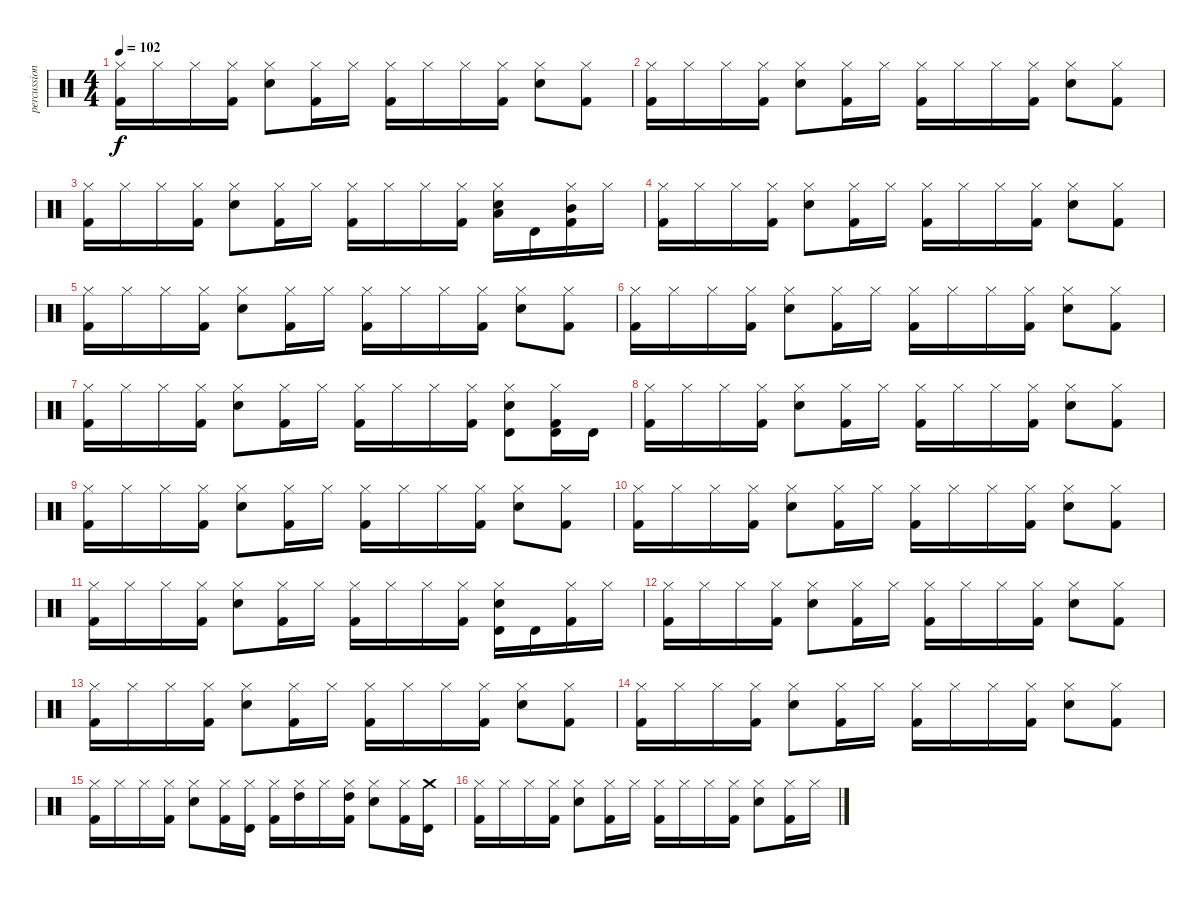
\track ("percussion" "percussion") {instrument percussion}
\staff {score}
\articulation defaults
\ts (4 4)
\tempo 102
\clef neutral
\ks aminor
("Hi-Hat (closed)" "Kick (hit) 2").16{dy f} "Hi-Hat (closed)".16 "Hi-Hat (closed)".16 ("Hi-Hat (closed)" "Kick (hit) 2").16 ("Snare (hit) 2" "Hi-Hat (closed)").8 ("Hi-Hat (closed)" "Kick (hit) 2").16 "Hi-Hat (closed)".16 ("Hi-Hat (closed)" "Kick (hit) 2").16 "Hi-Hat (closed)".16 "Hi-Hat (closed)".16 ("Hi-Hat (closed)" "Kick (hit) 2").16 ("Snare (hit) 2" "Hi-Hat (closed)").8 ("Hi-Hat (closed)" "Kick (hit) 2").8 |
("Hi-Hat (closed)" "Kick (hit) 2").16 "Hi-Hat (closed)".16 "Hi-Hat (closed)".16 ("Hi-Hat (closed)" "Kick (hit) 2").16 ("Snare (hit) 2" "Hi-Hat (closed)").8 ("Hi-Hat (closed)" "Kick (hit) 2").16 "Hi-Hat (closed)".16 ("Hi-Hat (closed)" "Kick (hit) 2").16 "Hi-Hat (closed)".16 "Hi-Hat (closed)".16 ("Hi-Hat (closed)" "Kick (hit) 2").16 ("Snare (hit) 2" "Hi-Hat (closed)").8 ("Hi-Hat (closed)" "Kick (hit) 2").8 |
("Hi-Hat (closed)" "Kick (hit) 2").16 "Hi-Hat (closed)".16 "Hi-Hat (closed)".16 ("Hi-Hat (closed)" "Kick (hit) 2").16 ("Snare (hit) 2" "Hi-Hat (closed)").8 ("Hi-Hat (closed)" "Kick (hit) 2").16 "Hi-Hat (closed)".16 ("Hi-Hat (closed)" "Kick (hit) 2").16 "Hi-Hat (closed)".16 "Hi-Hat (closed)".16 ("Hi-Hat (closed)" "Kick (hit) 2").16 ("Low Tom (hit)" "Snare (hit) 2" "Hi-Hat (closed)").16 "Timbale high (hit)".16 ("Mid Tom (hit)" "Hi-Hat (closed)" "Kick (hit) 2").16 "Hi-Hat (closed)".16 |
("Hi-Hat (closed)" "Kick (hit) 2").16 "Hi-Hat (closed)".16 "Hi-Hat (closed)".16 ("Hi-Hat (closed)" "Kick (hit) 2").16 ("Snare (hit) 2" "Hi-Hat (closed)").8 ("Hi-Hat (closed)" "Kick (hit) 2").16 "Hi-Hat (closed)".16 ("Hi-Hat (closed)" "Kick (hit) 2").16 "Hi-Hat (closed)".16 "Hi-Hat (closed)".16 ("Hi-Hat (closed)" "Kick (hit) 2").16 ("Snare (hit) 2" "Hi-Hat (closed)").8 ("Hi-Hat (closed)" "Kick (hit) 2").8 |
("Hi-Hat (closed)" "Kick (hit) 2").16 "Hi-Hat (closed)".16 "Hi-Hat (closed)".16 ("Hi-Hat (closed)" "Kick (hit) 2").16 ("Snare (hit) 2" "Hi-Hat (closed)").8 ("Hi-Hat (closed)" "Kick (hit) 2").16 "Hi-Hat (closed)".16 ("Hi-Hat (closed)" "Kick (hit) 2").16 "Hi-Hat (closed)".16 "Hi-Hat (closed)".16 ("Hi-Hat (closed)" "Kick (hit) 2").16 ("Snare (hit) 2" "Hi-Hat (closed)").8 ("Hi-Hat (closed)" "Kick (hit) 2").8 |
("Hi-Hat (closed)" "Kick (hit) 2").16 "Hi-Hat (closed)".16 "Hi-Hat (closed)".16 ("Hi-Hat (closed)" "Kick (hit) 2").16 ("Snare (hit) 2" "Hi-Hat (closed)").8 ("Hi-Hat (closed)" "Kick (hit) 2").16 "Hi-Hat (closed)".16 ("Hi-Hat (closed)" "Kick (hit) 2").16 "Hi-Hat (closed)".16 "Hi-Hat (closed)".16 ("Hi-Hat (closed)" "Kick (hit) 2").16 ("Snare (hit) 2" "Hi-Hat (closed)").8 ("Hi-Hat (closed)" "Kick (hit) 2").8 |
("Hi-Hat (closed)" "Kick (hit) 2").16 "Hi-Hat (closed)".16 "Hi-Hat (closed)".16 ("Hi-Hat (closed)" "Kick (hit) 2").16 ("Snare (hit) 2" "Hi-Hat (closed)").8 ("Hi-Hat (closed)" "Kick (hit) 2").16 "Hi-Hat (closed)".16 ("Hi-Hat (closed)" "Kick (hit) 2").16 "Hi-Hat (closed)".16 "Hi-Hat (closed)".16 ("Hi-Hat (closed)" "Kick (hit) 2").16 ("Timbale high (hit)" "Snare (hit) 2" "Hi-Hat (closed)").8 ("Timbale high (hit)" "Hi-Hat (closed)" "Kick (hit) 2").16 "Timbale high (hit)".16 |
("Hi-Hat (closed)" "Kick (hit) 2").16 "Hi-Hat (closed)".16 "Hi-Hat (closed)".16 ("Hi-Hat (closed)" "Kick (hit) 2").16 ("Snare (hit) 2" "Hi-Hat (closed)").8 ("Hi-Hat (closed)" "Kick (hit) 2").16 "Hi-Hat (closed)".16 ("Hi-Hat (closed)" "Kick (hit) 2").16 "Hi-Hat (closed)".16 "Hi-Hat (closed)".16 ("Hi-Hat (closed)" "Kick (hit) 2").16 ("Snare (hit) 2" "Hi-Hat (closed)").8 ("Hi-Hat (closed)" "Kick (hit) 2").8 |
("Hi-Hat (closed)" "Kick (hit) 2").16 "Hi-Hat (closed)".16 "Hi-Hat (closed)".16 ("Hi-Hat (closed)" "Kick (hit) 2").16 ("Snare (hit) 2" "Hi-Hat (closed)").8 ("Hi-Hat (closed)" "Kick (hit) 2").16 "Hi-Hat (closed)".16 ("Hi-Hat (closed)" "Kick (hit) 2").16 "Hi-Hat (closed)".16 "Hi-Hat (closed)".16 ("Hi-Hat (closed)" "Kick (hit) 2").16 ("Snare (hit) 2" "Hi-Hat (closed)").8 ("Hi-Hat (closed)" "Kick (hit) 2").8 |
("Hi-Hat (closed)" "Kick (hit) 2").16 "Hi-Hat (closed)".16 "Hi-Hat (closed)".16 ("Hi-Hat (closed)" "Kick (hit) 2").16 ("Snare (hit) 2" "Hi-Hat (closed)").8 ("Hi-Hat (closed)" "Kick (hit) 2").16 "Hi-Hat (closed)".16 ("Hi-Hat (closed)" "Kick (hit) 2").16 "Hi-Hat (closed)".16 "Hi-Hat (closed)".16 ("Hi-Hat (closed)" "Kick (hit) 2").16 ("Snare (hit) 2" "Hi-Hat (closed)").8 ("Hi-Hat (closed)" "Kick (hit) 2").8 |
("Hi-Hat (closed)" "Kick (hit) 2").16 "Hi-Hat (closed)".16 "Hi-Hat (closed)".16 ("Hi-Hat (closed)" "Kick (hit) 2").16 ("Snare (hit) 2" "Hi-Hat (closed)").8 ("Hi-Hat (closed)" "Kick (hit) 2").16 "Hi-Hat (closed)".16 ("Hi-Hat (closed)" "Kick (hit) 2").16 "Hi-Hat (closed)".16 "Hi-Hat (closed)".16 ("Hi-Hat (closed)" "Kick (hit) 2").16 ("Timbale high (hit)" "Snare (hit) 2" "Hi-Hat (closed)").16 "Timbale high (hit)".16 ("Hi-Hat (closed)" "Kick (hit) 2").16 "Hi-Hat (closed)".16 |
("Hi-Hat (closed)" "Kick (hit) 2").16 "Hi-Hat (closed)".16 "Hi-Hat (closed)".16 ("Hi-Hat (closed)" "Kick (hit) 2").16 ("Snare (hit) 2" "Hi-Hat (closed)").8 ("Hi-Hat (closed)" "Kick (hit) 2").16 "Hi-Hat (closed)".16 ("Hi-Hat (closed)" "Kick (hit) 2").16 "Hi-Hat (closed)".16 "Hi-Hat (closed)".16 ("Hi-Hat (closed)" "Kick (hit) 2").16 ("Snare (hit) 2" "Hi-Hat (closed)").8 ("Hi-Hat (closed)" "Kick (hit) 2").8 |
("Hi-Hat (closed)" "Kick (hit) 2").16 "Hi-Hat (closed)".16 "Hi-Hat (closed)".16 ("Hi-Hat (closed)" "Kick (hit) 2").16 ("Snare (hit) 2" "Hi-Hat (closed)").8 ("Hi-Hat (closed)" "Kick (hit) 2").16 "Hi-Hat (closed)".16 ("Hi-Hat (closed)" "Kick (hit) 2").16 "Hi-Hat (closed)".16 "Hi-Hat (closed)".16 ("Hi-Hat (closed)" "Kick (hit) 2").16 ("Snare (hit) 2" "Hi-Hat (closed)").8 ("Hi-Hat (closed)" "Kick (hit) 2").8 |
("Hi-Hat (closed)" "Kick (hit) 2").16 "Hi-Hat (closed)".16 "Hi-Hat (closed)".16 ("Hi-Hat (closed)" "Kick (hit) 2").16 ("Snare (hit) 2" "Hi-Hat (closed)").8 ("Hi-Hat (closed)" "Kick (hit) 2").16 "Hi-Hat (closed)".16 ("Hi-Hat (closed)" "Kick (hit) 2").16 "Hi-Hat (closed)".16 "Hi-Hat (closed)".16 ("Hi-Hat (closed)" "Kick (hit) 2").16 ("Snare (hit) 2" "Hi-Hat (closed)").8 ("Hi-Hat (closed)" "Kick (hit) 2").8 |
("Hi-Hat (closed)" "Kick (hit) 2").16 "Hi-Hat (closed)".16 "Hi-Hat (closed)".16 ("Hi-Hat (closed)" "Kick (hit) 2").16 ("Snare (hit) 2" "Hi-Hat (closed)").8 ("Hi-Hat (closed)" "Kick (hit) 2").16 ("Timbale high (hit)" "Hi-Hat (closed)").16 ("Hi-Hat (closed)" "Kick (hit) 2").16 ("High Tom (hit)" "Hi-Hat (closed)").16 "Hi-Hat (closed)".16 ("High Tom (hit)" "Hi-Hat (closed)" "Kick (hit) 2").16 ("Snare (hit) 2" "Hi-Hat (closed)").8 ("Hi-Hat (closed)" "Kick (hit) 2").16 ("Crash medium (hit)" "Timbale high (hit)").16 |
("Hi-Hat (closed)" "Kick (hit) 2").16 "Hi-Hat (closed)".16 "Hi-Hat (closed)".16 ("Hi-Hat (closed)" "Kick (hit) 2").16 ("Snare (hit) 2" "Hi-Hat (closed)").8 ("Hi-Hat (closed)" "Kick (hit) 2").16 "Hi-Hat (closed)".16 ("Hi-Hat (closed)" "Kick (hit) 2").16 "Hi-Hat (closed)".16 "Hi-Hat (closed)".16 ("Hi-Hat (closed)" "Kick (hit) 2").16 ("Snare (hit) 2" "Hi-Hat (closed)").8 ("Hi-Hat (closed)" "Kick (hit) 2").16 "Hi-Hat (closed)".16
